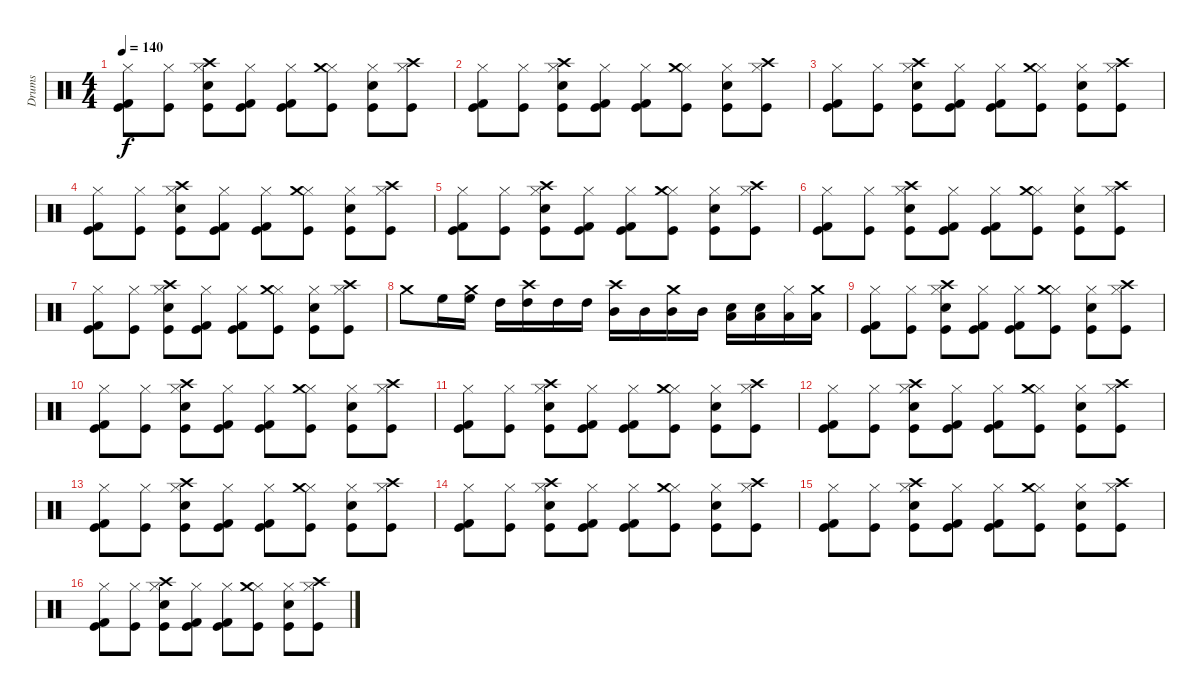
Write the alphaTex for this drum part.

\track ("Drums" "Drums") {instrument percussion}
\staff {score}
\articulation defaults
\ts (4 4)
\tempo 140
\clef neutral
\ks c
("Hi-Hat (closed)" "Kick (hit)" "Kick (hit) 2").8{dy f} ("Hi-Hat (closed)" "Kick (hit)").8 ("Hi-Hat (closed)" "Kick (hit)" "Electric Snare (hit)" "Crash high (hit)").8 ("Hi-Hat (closed)" "Kick (hit)" "Kick (hit) 2").8 ("Hi-Hat (closed)" "Kick (hit)" "Kick (hit) 2").8 ("Hi-Hat (closed)" "Kick (hit)" "Crash medium (hit)").8 ("Hi-Hat (closed)" "Kick (hit)" "Snare (hit) 2").8 ("Hi-Hat (closed)" "Kick (hit)" "Crash high (hit)").8 |
("Hi-Hat (closed)" "Kick (hit)" "Kick (hit) 2").8 ("Hi-Hat (closed)" "Kick (hit)").8 ("Hi-Hat (closed)" "Kick (hit)" "Electric Snare (hit)" "Crash high (hit)").8 ("Hi-Hat (closed)" "Kick (hit)" "Kick (hit) 2").8 ("Hi-Hat (closed)" "Kick (hit)" "Kick (hit) 2").8 ("Hi-Hat (closed)" "Kick (hit)" "Crash medium (hit)").8 ("Hi-Hat (closed)" "Kick (hit)" "Snare (hit) 2").8 ("Hi-Hat (closed)" "Kick (hit)" "Crash high (hit)").8 |
("Hi-Hat (closed)" "Kick (hit)" "Kick (hit) 2").8 ("Hi-Hat (closed)" "Kick (hit)").8 ("Hi-Hat (closed)" "Kick (hit)" "Electric Snare (hit)" "Crash high (hit)").8 ("Hi-Hat (closed)" "Kick (hit)" "Kick (hit) 2").8 ("Hi-Hat (closed)" "Kick (hit)" "Kick (hit) 2").8 ("Hi-Hat (closed)" "Kick (hit)" "Crash medium (hit)").8 ("Hi-Hat (closed)" "Kick (hit)" "Snare (hit) 2").8 ("Hi-Hat (closed)" "Kick (hit)" "Crash high (hit)").8 |
("Hi-Hat (closed)" "Kick (hit)" "Kick (hit) 2").8 ("Hi-Hat (closed)" "Kick (hit)").8 ("Hi-Hat (closed)" "Kick (hit)" "Electric Snare (hit)" "Crash high (hit)").8 ("Hi-Hat (closed)" "Kick (hit)" "Kick (hit) 2").8 ("Hi-Hat (closed)" "Kick (hit)" "Kick (hit) 2").8 ("Hi-Hat (closed)" "Kick (hit)" "Crash medium (hit)").8 ("Hi-Hat (closed)" "Kick (hit)" "Snare (hit) 2").8 ("Hi-Hat (closed)" "Kick (hit)" "Crash high (hit)").8 |
("Hi-Hat (closed)" "Kick (hit)" "Kick (hit) 2").8 ("Hi-Hat (closed)" "Kick (hit)").8 ("Hi-Hat (closed)" "Kick (hit)" "Electric Snare (hit)" "Crash high (hit)").8 ("Hi-Hat (closed)" "Kick (hit)" "Kick (hit) 2").8 ("Hi-Hat (closed)" "Kick (hit)" "Kick (hit) 2").8 ("Hi-Hat (closed)" "Kick (hit)" "Crash medium (hit)").8 ("Hi-Hat (closed)" "Kick (hit)" "Snare (hit) 2").8 ("Hi-Hat (closed)" "Kick (hit)" "Crash high (hit)").8 |
("Hi-Hat (closed)" "Kick (hit)" "Kick (hit) 2").8 ("Hi-Hat (closed)" "Kick (hit)").8 ("Hi-Hat (closed)" "Kick (hit)" "Electric Snare (hit)" "Crash high (hit)").8 ("Hi-Hat (closed)" "Kick (hit)" "Kick (hit) 2").8 ("Hi-Hat (closed)" "Kick (hit)" "Kick (hit) 2").8 ("Hi-Hat (closed)" "Kick (hit)" "Crash medium (hit)").8 ("Hi-Hat (closed)" "Kick (hit)" "Snare (hit) 2").8 ("Hi-Hat (closed)" "Kick (hit)" "Crash high (hit)").8 |
("Hi-Hat (closed)" "Kick (hit)" "Kick (hit) 2").8 ("Hi-Hat (closed)" "Kick (hit)").8 ("Hi-Hat (closed)" "Kick (hit)" "Electric Snare (hit)" "Crash high (hit)").8 ("Hi-Hat (closed)" "Kick (hit)" "Kick (hit) 2").8 ("Hi-Hat (closed)" "Kick (hit)" "Kick (hit) 2").8 ("Hi-Hat (closed)" "Kick (hit)" "Crash medium (hit)").8 ("Hi-Hat (closed)" "Kick (hit)" "Snare (hit) 2").8 ("Hi-Hat (closed)" "Kick (hit)" "Crash high (hit)").8 |
"Crash medium (hit)".8 "High Floor Tom (hit)".16 ("High Floor Tom (hit)" "Crash medium (hit)").16 "High Tom (hit)".16 ("High Tom (hit)" "Crash high (hit)").16 "High Tom (hit)".16 "High Tom (hit)".16 ("Mid Tom (hit)" "Crash high (hit)").16 "Mid Tom (hit)".16 ("Mid Tom (hit)" "Crash medium (hit)").16 "Mid Tom (hit)".16 ("Low Tom (hit)" "Electric Snare (hit)").16 ("Low Tom (hit)" "Snare (hit) 2").16 ("Low Tom (hit)" "Hi-Hat (closed)").16 ("Low Tom (hit)" "Crash medium (hit)").16 |
("Hi-Hat (closed)" "Kick (hit)" "Kick (hit) 2").8 ("Hi-Hat (closed)" "Kick (hit)").8 ("Hi-Hat (closed)" "Kick (hit)" "Electric Snare (hit)" "Crash high (hit)").8 ("Hi-Hat (closed)" "Kick (hit)" "Kick (hit) 2").8 ("Hi-Hat (closed)" "Kick (hit)" "Kick (hit) 2").8 ("Hi-Hat (closed)" "Kick (hit)" "Crash medium (hit)").8 ("Hi-Hat (closed)" "Kick (hit)" "Snare (hit) 2").8 ("Hi-Hat (closed)" "Kick (hit)" "Crash high (hit)").8 |
("Hi-Hat (closed)" "Kick (hit)" "Kick (hit) 2").8 ("Hi-Hat (closed)" "Kick (hit)").8 ("Hi-Hat (closed)" "Kick (hit)" "Electric Snare (hit)" "Crash high (hit)").8 ("Hi-Hat (closed)" "Kick (hit)" "Kick (hit) 2").8 ("Hi-Hat (closed)" "Kick (hit)" "Kick (hit) 2").8 ("Hi-Hat (closed)" "Kick (hit)" "Crash medium (hit)").8 ("Hi-Hat (closed)" "Kick (hit)" "Snare (hit) 2").8 ("Hi-Hat (closed)" "Kick (hit)" "Crash high (hit)").8 |
("Hi-Hat (closed)" "Kick (hit)" "Kick (hit) 2").8 ("Hi-Hat (closed)" "Kick (hit)").8 ("Hi-Hat (closed)" "Kick (hit)" "Electric Snare (hit)" "Crash high (hit)").8 ("Hi-Hat (closed)" "Kick (hit)" "Kick (hit) 2").8 ("Hi-Hat (closed)" "Kick (hit)" "Kick (hit) 2").8 ("Hi-Hat (closed)" "Kick (hit)" "Crash medium (hit)").8 ("Hi-Hat (closed)" "Kick (hit)" "Snare (hit) 2").8 ("Hi-Hat (closed)" "Kick (hit)" "Crash high (hit)").8 |
("Hi-Hat (closed)" "Kick (hit)" "Kick (hit) 2").8 ("Hi-Hat (closed)" "Kick (hit)").8 ("Hi-Hat (closed)" "Kick (hit)" "Electric Snare (hit)" "Crash high (hit)").8 ("Hi-Hat (closed)" "Kick (hit)" "Kick (hit) 2").8 ("Hi-Hat (closed)" "Kick (hit)" "Kick (hit) 2").8 ("Hi-Hat (closed)" "Kick (hit)" "Crash medium (hit)").8 ("Hi-Hat (closed)" "Kick (hit)" "Snare (hit) 2").8 ("Hi-Hat (closed)" "Kick (hit)" "Crash high (hit)").8 |
("Hi-Hat (closed)" "Kick (hit)" "Kick (hit) 2").8 ("Hi-Hat (closed)" "Kick (hit)").8 ("Hi-Hat (closed)" "Kick (hit)" "Electric Snare (hit)" "Crash high (hit)").8 ("Hi-Hat (closed)" "Kick (hit)" "Kick (hit) 2").8 ("Hi-Hat (closed)" "Kick (hit)" "Kick (hit) 2").8 ("Hi-Hat (closed)" "Kick (hit)" "Crash medium (hit)").8 ("Hi-Hat (closed)" "Kick (hit)" "Snare (hit) 2").8 ("Hi-Hat (closed)" "Kick (hit)" "Crash high (hit)").8 |
("Hi-Hat (closed)" "Kick (hit)" "Kick (hit) 2").8 ("Hi-Hat (closed)" "Kick (hit)").8 ("Hi-Hat (closed)" "Kick (hit)" "Electric Snare (hit)" "Crash high (hit)").8 ("Hi-Hat (closed)" "Kick (hit)" "Kick (hit) 2").8 ("Hi-Hat (closed)" "Kick (hit)" "Kick (hit) 2").8 ("Hi-Hat (closed)" "Kick (hit)" "Crash medium (hit)").8 ("Hi-Hat (closed)" "Kick (hit)" "Snare (hit) 2").8 ("Hi-Hat (closed)" "Kick (hit)" "Crash high (hit)").8 |
("Hi-Hat (closed)" "Kick (hit)" "Kick (hit) 2").8 ("Hi-Hat (closed)" "Kick (hit)").8 ("Hi-Hat (closed)" "Kick (hit)" "Electric Snare (hit)" "Crash high (hit)").8 ("Hi-Hat (closed)" "Kick (hit)" "Kick (hit) 2").8 ("Hi-Hat (closed)" "Kick (hit)" "Kick (hit) 2").8 ("Hi-Hat (closed)" "Kick (hit)" "Crash medium (hit)").8 ("Hi-Hat (closed)" "Kick (hit)" "Snare (hit) 2").8 ("Hi-Hat (closed)" "Kick (hit)" "Crash high (hit)").8 |
("Hi-Hat (closed)" "Kick (hit)" "Kick (hit) 2").8 ("Hi-Hat (closed)" "Kick (hit)").8 ("Hi-Hat (closed)" "Kick (hit)" "Electric Snare (hit)" "Crash high (hit)").8 ("Hi-Hat (closed)" "Kick (hit)" "Kick (hit) 2").8 ("Hi-Hat (closed)" "Kick (hit)" "Kick (hit) 2").8 ("Hi-Hat (closed)" "Kick (hit)" "Crash medium (hit)").8 ("Hi-Hat (closed)" "Kick (hit)" "Snare (hit) 2").8 ("Hi-Hat (closed)" "Kick (hit)" "Crash high (hit)").8
